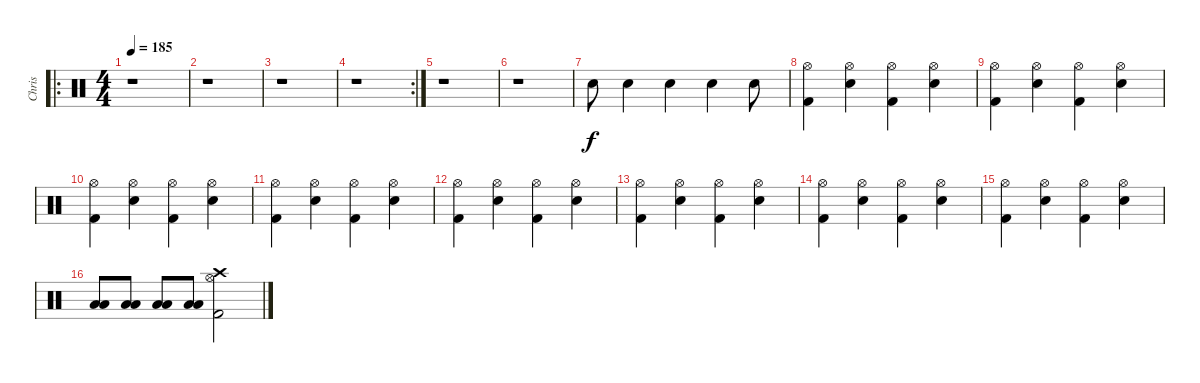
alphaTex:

\track ("Chris" "Chris") {instrument percussion}
\staff {score}
\articulation defaults
\ro
\ts (4 4)
\tempo 185
\clef neutral
\ks c
r.1{dy f} |
r.1 |
r.1 |
\rc 2
r.1 |
r.1 |
r.1 |
"Snare (hit) 2".8 "Snare (hit) 2".4 "Snare (hit) 2".4 "Snare (hit) 2".4 "Snare (hit) 2".8 |
("Hi-Hat (open)" "Kick (hit) 2").4 ("Snare (hit) 2" "Hi-Hat (open)").4 ("Hi-Hat (open)" "Kick (hit) 2").4 ("Snare (hit) 2" "Hi-Hat (open)").4 |
("Hi-Hat (open)" "Kick (hit) 2").4 ("Snare (hit) 2" "Hi-Hat (open)").4 ("Hi-Hat (open)" "Kick (hit) 2").4 ("Snare (hit) 2" "Hi-Hat (open)").4 |
("Hi-Hat (open)" "Kick (hit) 2").4 ("Snare (hit) 2" "Hi-Hat (open)").4 ("Hi-Hat (open)" "Kick (hit) 2").4 ("Snare (hit) 2" "Hi-Hat (open)").4 |
("Hi-Hat (open)" "Kick (hit) 2").4 ("Snare (hit) 2" "Hi-Hat (open)").4 ("Hi-Hat (open)" "Kick (hit) 2").4 ("Snare (hit) 2" "Hi-Hat (open)").4 |
("Hi-Hat (open)" "Kick (hit) 2").4 ("Snare (hit) 2" "Hi-Hat (open)").4 ("Hi-Hat (open)" "Kick (hit) 2").4 ("Snare (hit) 2" "Hi-Hat (open)").4 |
("Hi-Hat (open)" "Kick (hit) 2").4 ("Snare (hit) 2" "Hi-Hat (open)").4 ("Hi-Hat (open)" "Kick (hit) 2").4 ("Snare (hit) 2" "Hi-Hat (open)").4 |
("Hi-Hat (open)" "Kick (hit) 2").4 ("Snare (hit) 2" "Hi-Hat (open)").4 ("Hi-Hat (open)" "Kick (hit) 2").4 ("Snare (hit) 2" "Hi-Hat (open)").4 |
("Hi-Hat (open)" "Kick (hit) 2").4 ("Snare (hit) 2" "Hi-Hat (open)").4 ("Hi-Hat (open)" "Kick (hit) 2").4 ("Snare (hit) 2" "Hi-Hat (open)").4 |
("Low Floor Tom (hit)" "Low Tom (hit)").8 ("Low Floor Tom (hit)" "Low Tom (hit)").8 ("Low Floor Tom (hit)" "Low Tom (hit)").8 ("Low Floor Tom (hit)" "Low Tom (hit)").8 ("Crash high (hit)" "Hi-Hat (open)" "Kick (hit) 2").2
